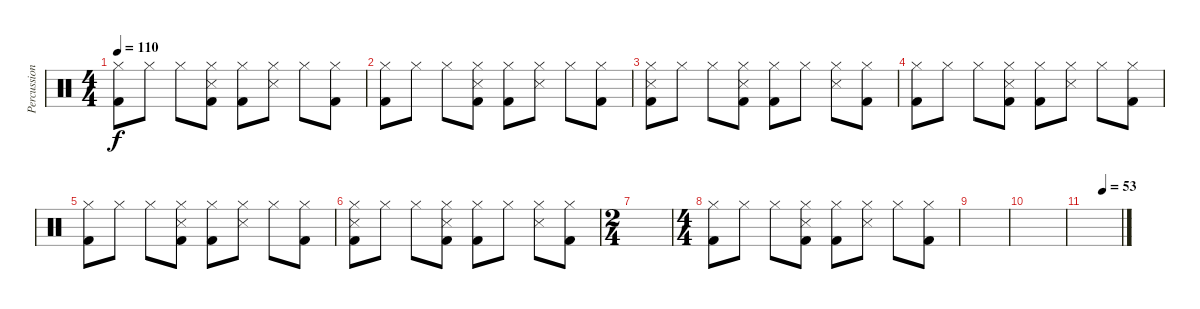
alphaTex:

\track ("Percussions" "Percussion") {instrument percussion}
\staff {score}
\articulation defaults
\ts (4 4)
\tempo 110
\clef neutral
\ks c
("Hi-Hat (closed)" "Kick (hit) 2").8{dy f} "Hi-Hat (closed)".8 "Hi-Hat (closed)".8 ("Hi-Hat (closed)" "Snare (side stick) 3" "Kick (hit) 2").8 ("Hi-Hat (closed)" "Kick (hit) 2").8 ("Hi-Hat (closed)" "Snare (side stick) 3").8 "Hi-Hat (closed)".8 ("Hi-Hat (closed)" "Kick (hit) 2").8 |
("Hi-Hat (closed)" "Kick (hit) 2").8 "Hi-Hat (closed)".8 "Hi-Hat (closed)".8 ("Hi-Hat (closed)" "Snare (side stick) 3" "Kick (hit) 2").8 ("Hi-Hat (closed)" "Kick (hit) 2").8 ("Hi-Hat (closed)" "Snare (side stick) 3").8 "Hi-Hat (closed)".8 ("Hi-Hat (closed)" "Kick (hit) 2").8 |
("Hi-Hat (closed)" "Snare (side stick) 3" "Kick (hit) 2").8 "Hi-Hat (closed)".8 "Hi-Hat (closed)".8 ("Hi-Hat (closed)" "Snare (side stick) 3" "Kick (hit) 2").8 ("Hi-Hat (closed)" "Kick (hit) 2").8 "Hi-Hat (closed)".8 ("Hi-Hat (closed)" "Snare (side stick) 3").8 ("Hi-Hat (closed)" "Kick (hit) 2").8 |
("Hi-Hat (closed)" "Kick (hit) 2").8 "Hi-Hat (closed)".8 "Hi-Hat (closed)".8 ("Hi-Hat (closed)" "Snare (side stick) 3" "Kick (hit) 2").8 ("Hi-Hat (closed)" "Kick (hit) 2").8 ("Hi-Hat (closed)" "Snare (side stick) 3").8 "Hi-Hat (closed)".8 ("Hi-Hat (closed)" "Kick (hit) 2").8 |
("Hi-Hat (closed)" "Kick (hit) 2").8 "Hi-Hat (closed)".8 "Hi-Hat (closed)".8 ("Hi-Hat (closed)" "Snare (side stick) 3" "Kick (hit) 2").8 ("Hi-Hat (closed)" "Kick (hit) 2").8 ("Hi-Hat (closed)" "Snare (side stick) 3").8 "Hi-Hat (closed)".8 ("Hi-Hat (closed)" "Kick (hit) 2").8 |
("Hi-Hat (closed)" "Snare (side stick) 3" "Kick (hit) 2").8 "Hi-Hat (closed)".8 "Hi-Hat (closed)".8 ("Hi-Hat (closed)" "Snare (side stick) 3" "Kick (hit) 2").8 ("Hi-Hat (closed)" "Kick (hit) 2").8 "Hi-Hat (closed)".8 ("Hi-Hat (closed)" "Snare (side stick) 3").8 ("Hi-Hat (closed)" "Kick (hit) 2").8 |
\ts (2 4)
|
\ts (4 4)
("Hi-Hat (closed)" "Kick (hit) 2").8 "Hi-Hat (closed)".8 "Hi-Hat (closed)".8 ("Hi-Hat (closed)" "Snare (side stick) 3" "Kick (hit) 2").8 ("Hi-Hat (closed)" "Kick (hit) 2").8 ("Hi-Hat (closed)" "Snare (side stick) 3").8 "Hi-Hat (closed)".8 ("Hi-Hat (closed)" "Kick (hit) 2").8 |
|
|
\tempo (53 0.5)
